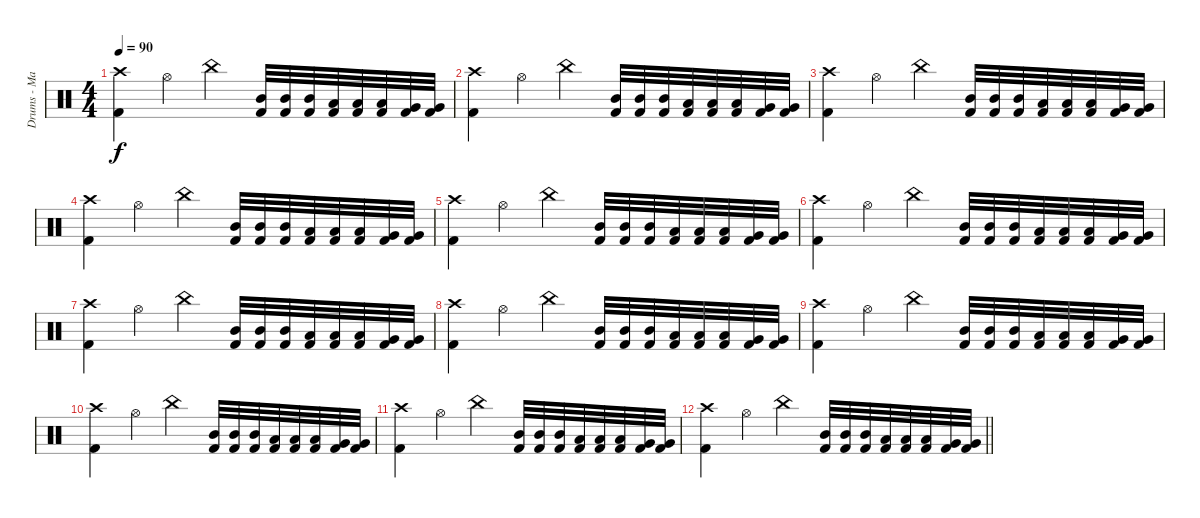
\track ("Drums - Mario Duplantier" "Drums - Ma") {instrument percussion}
\staff {score}
\articulation defaults
\ts (4 4)
\tempo 90
\clef neutral
\ks c
("Crash high (hit)" "Kick (hit) 2").4{dy f} "Hi-Hat (open)".4 "China (hit)".4 ("Mid Tom (hit)" "Kick (hit) 2").32 ("Mid Tom (hit)" "Kick (hit) 2").32 ("Mid Tom (hit)" "Kick (hit) 2").32 ("Low Tom (hit)" "Kick (hit) 2").32 ("Low Tom (hit)" "Kick (hit) 2").32 ("Low Tom (hit)" "Kick (hit) 2").32 ("Very Low Tom (hit)" "Kick (hit) 2").32 ("Very Low Tom (hit)" "Kick (hit) 2").32 |
("Crash high (hit)" "Kick (hit) 2").4 "Hi-Hat (open)".4 "China (hit)".4 ("Mid Tom (hit)" "Kick (hit) 2").32 ("Mid Tom (hit)" "Kick (hit) 2").32 ("Mid Tom (hit)" "Kick (hit) 2").32 ("Low Tom (hit)" "Kick (hit) 2").32 ("Low Tom (hit)" "Kick (hit) 2").32 ("Low Tom (hit)" "Kick (hit) 2").32 ("Very Low Tom (hit)" "Kick (hit) 2").32 ("Very Low Tom (hit)" "Kick (hit) 2").32 |
("Crash high (hit)" "Kick (hit) 2").4 "Hi-Hat (open)".4 "China (hit)".4 ("Mid Tom (hit)" "Kick (hit) 2").32 ("Mid Tom (hit)" "Kick (hit) 2").32 ("Mid Tom (hit)" "Kick (hit) 2").32 ("Low Tom (hit)" "Kick (hit) 2").32 ("Low Tom (hit)" "Kick (hit) 2").32 ("Low Tom (hit)" "Kick (hit) 2").32 ("Very Low Tom (hit)" "Kick (hit) 2").32 ("Very Low Tom (hit)" "Kick (hit) 2").32 |
("Crash high (hit)" "Kick (hit) 2").4 "Hi-Hat (open)".4 "China (hit)".4 ("Mid Tom (hit)" "Kick (hit) 2").32 ("Mid Tom (hit)" "Kick (hit) 2").32 ("Mid Tom (hit)" "Kick (hit) 2").32 ("Low Tom (hit)" "Kick (hit) 2").32 ("Low Tom (hit)" "Kick (hit) 2").32 ("Low Tom (hit)" "Kick (hit) 2").32 ("Very Low Tom (hit)" "Kick (hit) 2").32 ("Very Low Tom (hit)" "Kick (hit) 2").32 |
("Crash high (hit)" "Kick (hit) 2").4 "Hi-Hat (open)".4 "China (hit)".4 ("Mid Tom (hit)" "Kick (hit) 2").32 ("Mid Tom (hit)" "Kick (hit) 2").32 ("Mid Tom (hit)" "Kick (hit) 2").32 ("Low Tom (hit)" "Kick (hit) 2").32 ("Low Tom (hit)" "Kick (hit) 2").32 ("Low Tom (hit)" "Kick (hit) 2").32 ("Very Low Tom (hit)" "Kick (hit) 2").32 ("Very Low Tom (hit)" "Kick (hit) 2").32 |
("Crash high (hit)" "Kick (hit) 2").4 "Hi-Hat (open)".4 "China (hit)".4 ("Mid Tom (hit)" "Kick (hit) 2").32 ("Mid Tom (hit)" "Kick (hit) 2").32 ("Mid Tom (hit)" "Kick (hit) 2").32 ("Low Tom (hit)" "Kick (hit) 2").32 ("Low Tom (hit)" "Kick (hit) 2").32 ("Low Tom (hit)" "Kick (hit) 2").32 ("Very Low Tom (hit)" "Kick (hit) 2").32 ("Very Low Tom (hit)" "Kick (hit) 2").32 |
("Crash high (hit)" "Kick (hit) 2").4 "Hi-Hat (open)".4 "China (hit)".4 ("Mid Tom (hit)" "Kick (hit) 2").32 ("Mid Tom (hit)" "Kick (hit) 2").32 ("Mid Tom (hit)" "Kick (hit) 2").32 ("Low Tom (hit)" "Kick (hit) 2").32 ("Low Tom (hit)" "Kick (hit) 2").32 ("Low Tom (hit)" "Kick (hit) 2").32 ("Very Low Tom (hit)" "Kick (hit) 2").32 ("Very Low Tom (hit)" "Kick (hit) 2").32 |
("Crash high (hit)" "Kick (hit) 2").4 "Hi-Hat (open)".4 "China (hit)".4 ("Mid Tom (hit)" "Kick (hit) 2").32 ("Mid Tom (hit)" "Kick (hit) 2").32 ("Mid Tom (hit)" "Kick (hit) 2").32 ("Low Tom (hit)" "Kick (hit) 2").32 ("Low Tom (hit)" "Kick (hit) 2").32 ("Low Tom (hit)" "Kick (hit) 2").32 ("Very Low Tom (hit)" "Kick (hit) 2").32 ("Very Low Tom (hit)" "Kick (hit) 2").32 |
("Crash high (hit)" "Kick (hit) 2").4 "Hi-Hat (open)".4 "China (hit)".4 ("Mid Tom (hit)" "Kick (hit) 2").32 ("Mid Tom (hit)" "Kick (hit) 2").32 ("Mid Tom (hit)" "Kick (hit) 2").32 ("Low Tom (hit)" "Kick (hit) 2").32 ("Low Tom (hit)" "Kick (hit) 2").32 ("Low Tom (hit)" "Kick (hit) 2").32 ("Very Low Tom (hit)" "Kick (hit) 2").32 ("Very Low Tom (hit)" "Kick (hit) 2").32 |
("Crash high (hit)" "Kick (hit) 2").4 "Hi-Hat (open)".4 "China (hit)".4 ("Mid Tom (hit)" "Kick (hit) 2").32 ("Mid Tom (hit)" "Kick (hit) 2").32 ("Mid Tom (hit)" "Kick (hit) 2").32 ("Low Tom (hit)" "Kick (hit) 2").32 ("Low Tom (hit)" "Kick (hit) 2").32 ("Low Tom (hit)" "Kick (hit) 2").32 ("Very Low Tom (hit)" "Kick (hit) 2").32 ("Very Low Tom (hit)" "Kick (hit) 2").32 |
("Crash high (hit)" "Kick (hit) 2").4 "Hi-Hat (open)".4 "China (hit)".4 ("Mid Tom (hit)" "Kick (hit) 2").32 ("Mid Tom (hit)" "Kick (hit) 2").32 ("Mid Tom (hit)" "Kick (hit) 2").32 ("Low Tom (hit)" "Kick (hit) 2").32 ("Low Tom (hit)" "Kick (hit) 2").32 ("Low Tom (hit)" "Kick (hit) 2").32 ("Very Low Tom (hit)" "Kick (hit) 2").32 ("Very Low Tom (hit)" "Kick (hit) 2").32 |
\barLineRight lightlight
("Crash high (hit)" "Kick (hit) 2").4 "Hi-Hat (open)".4 "China (hit)".4 ("Mid Tom (hit)" "Kick (hit) 2").32 ("Mid Tom (hit)" "Kick (hit) 2").32 ("Mid Tom (hit)" "Kick (hit) 2").32 ("Low Tom (hit)" "Kick (hit) 2").32 ("Low Tom (hit)" "Kick (hit) 2").32 ("Low Tom (hit)" "Kick (hit) 2").32 ("Very Low Tom (hit)" "Kick (hit) 2").32 ("Very Low Tom (hit)" "Kick (hit) 2").32
